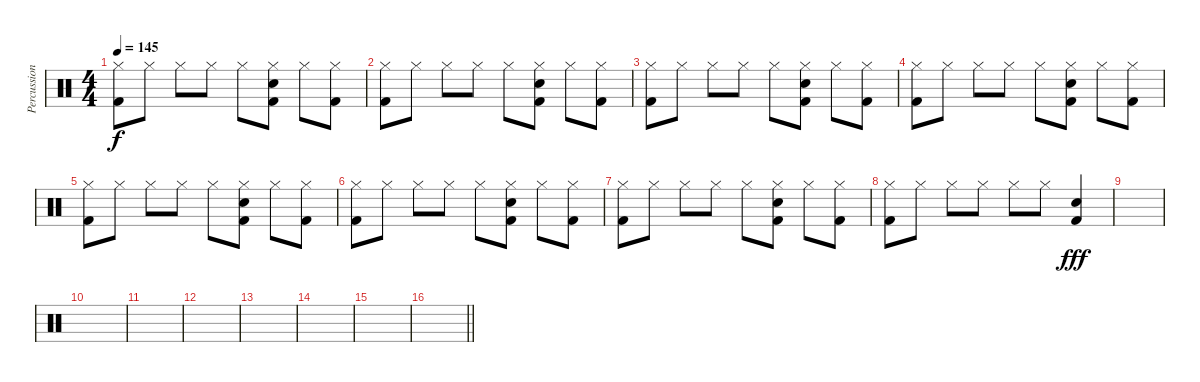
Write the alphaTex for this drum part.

\track ("Percussion" "Percussion") {instrument percussion}
\staff {score}
\articulation defaults
\ts (4 4)
\tempo 145
\clef neutral
\ks c
("Hi-Hat (closed)" "Kick (hit) 2").8{dy f} "Hi-Hat (closed)".8 "Hi-Hat (closed)".8 "Hi-Hat (closed)".8 "Hi-Hat (closed)".8 ("Snare (hit) 2" "Hi-Hat (closed)" "Kick (hit) 2").8 "Hi-Hat (closed)".8 ("Hi-Hat (closed)" "Kick (hit) 2").8 |
("Hi-Hat (closed)" "Kick (hit) 2").8 "Hi-Hat (closed)".8 "Hi-Hat (closed)".8 "Hi-Hat (closed)".8 "Hi-Hat (closed)".8 ("Snare (hit) 2" "Hi-Hat (closed)" "Kick (hit) 2").8 "Hi-Hat (closed)".8 ("Hi-Hat (closed)" "Kick (hit) 2").8 |
("Hi-Hat (closed)" "Kick (hit) 2").8 "Hi-Hat (closed)".8 "Hi-Hat (closed)".8 "Hi-Hat (closed)".8 "Hi-Hat (closed)".8 ("Snare (hit) 2" "Hi-Hat (closed)" "Kick (hit) 2").8 "Hi-Hat (closed)".8 ("Hi-Hat (closed)" "Kick (hit) 2").8 |
("Hi-Hat (closed)" "Kick (hit) 2").8 "Hi-Hat (closed)".8 "Hi-Hat (closed)".8 "Hi-Hat (closed)".8 "Hi-Hat (closed)".8 ("Snare (hit) 2" "Hi-Hat (closed)" "Kick (hit) 2").8 "Hi-Hat (closed)".8 ("Hi-Hat (closed)" "Kick (hit) 2").8 |
("Hi-Hat (closed)" "Kick (hit) 2").8 "Hi-Hat (closed)".8 "Hi-Hat (closed)".8 "Hi-Hat (closed)".8 "Hi-Hat (closed)".8 ("Snare (hit) 2" "Hi-Hat (closed)" "Kick (hit) 2").8 "Hi-Hat (closed)".8 ("Hi-Hat (closed)" "Kick (hit) 2").8 |
("Hi-Hat (closed)" "Kick (hit) 2").8 "Hi-Hat (closed)".8 "Hi-Hat (closed)".8 "Hi-Hat (closed)".8 "Hi-Hat (closed)".8 ("Snare (hit) 2" "Hi-Hat (closed)" "Kick (hit) 2").8 "Hi-Hat (closed)".8 ("Hi-Hat (closed)" "Kick (hit) 2").8 |
("Hi-Hat (closed)" "Kick (hit) 2").8 "Hi-Hat (closed)".8 "Hi-Hat (closed)".8 "Hi-Hat (closed)".8 "Hi-Hat (closed)".8 ("Snare (hit) 2" "Hi-Hat (closed)" "Kick (hit) 2").8 "Hi-Hat (closed)".8 ("Hi-Hat (closed)" "Kick (hit) 2").8 |
("Hi-Hat (closed)" "Kick (hit) 2").8 "Hi-Hat (closed)".8 "Hi-Hat (closed)".8 "Hi-Hat (closed)".8 "Hi-Hat (closed)".8 "Hi-Hat (closed)".8 ("Snare (hit) 2" "Kick (hit) 2").4{dy fff} |
|
|
|
|
|
|
|
\barLineRight lightlight
